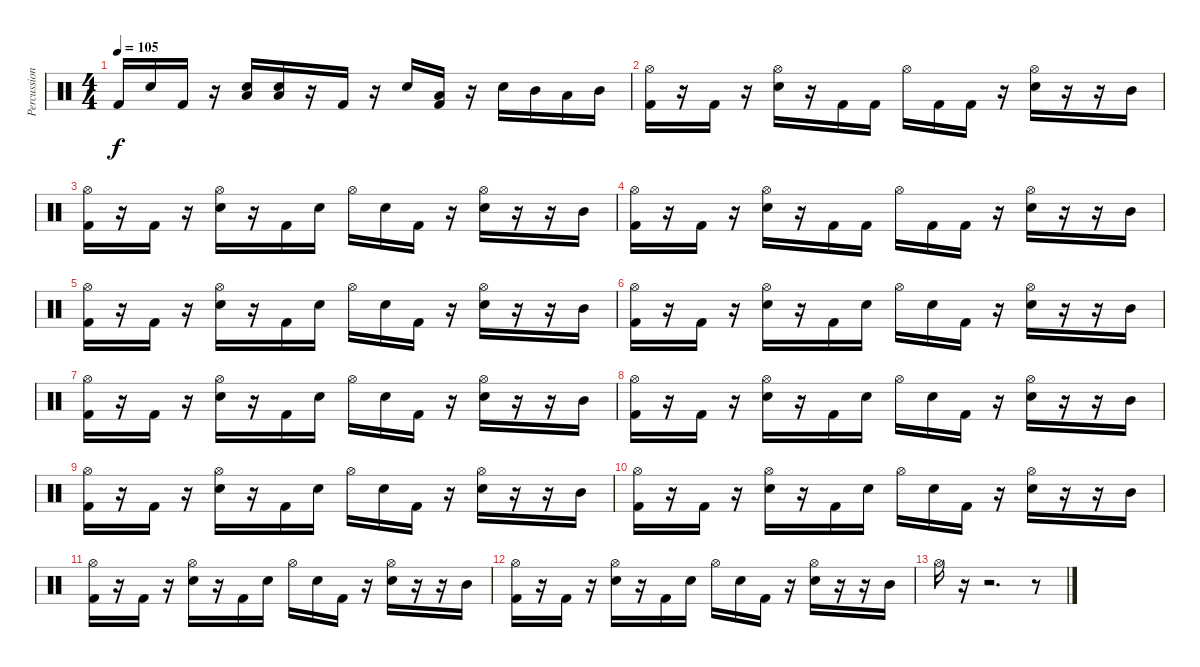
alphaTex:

\track ("Percussion" "Percussion") {instrument percussion}
\staff {score}
\articulation defaults
\ts (4 4)
\tempo 105
\clef neutral
\ks c "Kick (hit) 2".16{dy f} "Snare (hit) 2".16 "Kick (hit) 2".16
r.16 ("Low Tom (hit)" "Snare (hit) 2").16 ("Low Tom (hit)" "Snare (hit) 2").16 r.16 "Kick (hit) 2".16 r.16 "Snare (hit) 2".16 ("Low Tom (hit)" "Kick (hit) 2").16 r.16 "Snare (hit) 2".16 "Mid Tom (hit)".16 "Low Tom (hit)".16 "Mid Tom (hit)".16 |
("Hi-Hat (open)" "Kick (hit) 2").16 r.16 "Kick (hit) 2".16 r.16 ("Hi-Hat (open)" "Snare (hit) 2").16 r.16 "Kick (hit) 2".16 "Kick (hit) 2".16 "Hi-Hat (open)".16 "Kick (hit) 2".16 "Kick (hit) 2".16 r.16 ("Hi-Hat (open)" "Snare (hit) 2").16 r.16 r.16 "Mid Tom (hit)".16 |
("Hi-Hat (open)" "Kick (hit) 2").16 r.16 "Kick (hit) 2".16 r.16 ("Hi-Hat (open)" "Snare (hit) 2").16 r.16 "Kick (hit) 2".16 "Snare (hit) 2".16 "Hi-Hat (open)".16 "Snare (hit) 2".16 "Kick (hit) 2".16 r.16 ("Hi-Hat (open)" "Snare (hit) 2").16 r.16 r.16 "Mid Tom (hit)".16 |
("Hi-Hat (open)" "Kick (hit) 2").16 r.16 "Kick (hit) 2".16 r.16 ("Hi-Hat (open)" "Snare (hit) 2").16 r.16 "Kick (hit) 2".16 "Kick (hit) 2".16 "Hi-Hat (open)".16 "Kick (hit) 2".16 "Kick (hit) 2".16 r.16 ("Hi-Hat (open)" "Snare (hit) 2").16 r.16 r.16 "Mid Tom (hit)".16 |
("Hi-Hat (open)" "Kick (hit) 2").16 r.16 "Kick (hit) 2".16 r.16 ("Hi-Hat (open)" "Snare (hit) 2").16 r.16 "Kick (hit) 2".16 "Snare (hit) 2".16 "Hi-Hat (open)".16 "Snare (hit) 2".16 "Kick (hit) 2".16 r.16 ("Hi-Hat (open)" "Snare (hit) 2").16 r.16 r.16 "Mid Tom (hit)".16 |
("Hi-Hat (open)" "Kick (hit) 2").16 r.16 "Kick (hit) 2".16 r.16 ("Hi-Hat (open)" "Snare (hit) 2").16 r.16 "Kick (hit) 2".16 "Snare (hit) 2".16 "Hi-Hat (open)".16 "Snare (hit) 2".16 "Kick (hit) 2".16 r.16 ("Hi-Hat (open)" "Snare (hit) 2").16 r.16 r.16 "Mid Tom (hit)".16 |
("Hi-Hat (open)" "Kick (hit) 2").16 r.16 "Kick (hit) 2".16 r.16 ("Hi-Hat (open)" "Snare (hit) 2").16 r.16 "Kick (hit) 2".16 "Snare (hit) 2".16 "Hi-Hat (open)".16 "Snare (hit) 2".16 "Kick (hit) 2".16 r.16 ("Hi-Hat (open)" "Snare (hit) 2").16 r.16 r.16 "Mid Tom (hit)".16 |
("Hi-Hat (open)" "Kick (hit) 2").16 r.16 "Kick (hit) 2".16 r.16 ("Hi-Hat (open)" "Snare (hit) 2").16 r.16 "Kick (hit) 2".16 "Snare (hit) 2".16 "Hi-Hat (open)".16 "Snare (hit) 2".16 "Kick (hit) 2".16 r.16 ("Hi-Hat (open)" "Snare (hit) 2").16 r.16 r.16 "Mid Tom (hit)".16 |
("Hi-Hat (open)" "Kick (hit) 2").16 r.16 "Kick (hit) 2".16 r.16 ("Hi-Hat (open)" "Snare (hit) 2").16 r.16 "Kick (hit) 2".16 "Snare (hit) 2".16 "Hi-Hat (open)".16 "Snare (hit) 2".16 "Kick (hit) 2".16 r.16 ("Hi-Hat (open)" "Snare (hit) 2").16 r.16 r.16 "Mid Tom (hit)".16 |
("Hi-Hat (open)" "Kick (hit) 2").16 r.16 "Kick (hit) 2".16 r.16 ("Hi-Hat (open)" "Snare (hit) 2").16 r.16 "Kick (hit) 2".16 "Snare (hit) 2".16 "Hi-Hat (open)".16 "Snare (hit) 2".16 "Kick (hit) 2".16 r.16 ("Hi-Hat (open)" "Snare (hit) 2").16 r.16 r.16 "Mid Tom (hit)".16 |
("Hi-Hat (open)" "Kick (hit) 2").16 r.16 "Kick (hit) 2".16 r.16 ("Hi-Hat (open)" "Snare (hit) 2").16 r.16 "Kick (hit) 2".16 "Snare (hit) 2".16 "Hi-Hat (open)".16 "Snare (hit) 2".16 "Kick (hit) 2".16 r.16 ("Hi-Hat (open)" "Snare (hit) 2").16 r.16 r.16 "Mid Tom (hit)".16 |
("Hi-Hat (open)" "Kick (hit) 2").16 r.16 "Kick (hit) 2".16 r.16 ("Hi-Hat (open)" "Snare (hit) 2").16 r.16 "Kick (hit) 2".16 "Snare (hit) 2".16 "Hi-Hat (open)".16 "Snare (hit) 2".16 "Kick (hit) 2".16 r.16 ("Hi-Hat (open)" "Snare (hit) 2").16 r.16 r.16 "Mid Tom (hit)".16 |
"Hi-Hat (open)".16 r.16 r.2{d} r.8
